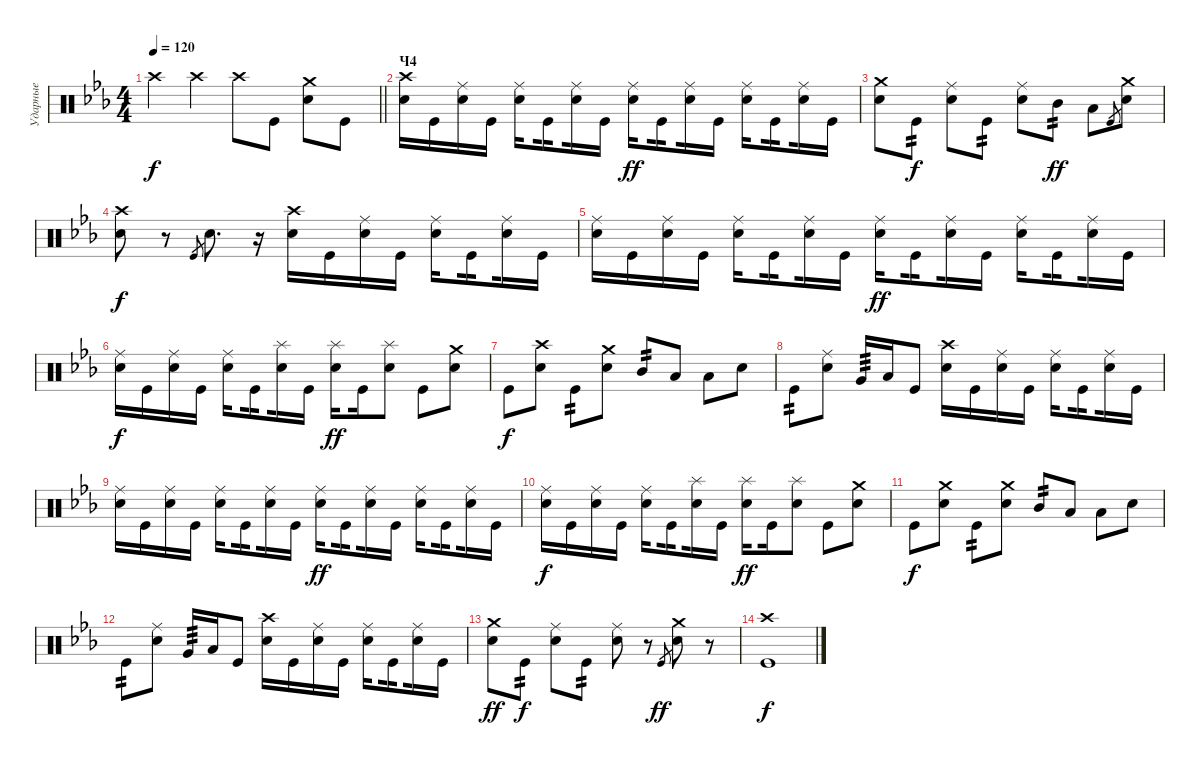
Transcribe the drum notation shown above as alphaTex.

\track ("Ударные" "Ударные") {instrument percussion}
\staff {score}
\articulation defaults
\ts (4 4)
\tempo 120
\clef neutral
\barLineRight lightlight
\ks cminor "Crash high (hit)".4{dy f} "Crash high (hit)".4 "Crash high (hit)".8 "Kick (hit)".8
("Crash medium (hit)" "Snare (hit) 2").8 "Kick (hit)".8 |
\section ("" "Ч4")
("Crash high (hit)" "Snare (hit) 2").16 "Kick (hit)".16 ("Ride (middle)" "Snare (hit) 2").16 "Kick (hit)".16 ("Ride (middle)" "Snare (hit) 2").16{beam splitsecondary} "Kick (hit)".16{beam splitsecondary} ("Ride (middle)" "Snare (hit) 2").16 "Kick (hit)".16 ("Ride (middle)" "Snare (hit) 2").16{dy ff beam splitsecondary} "Kick (hit)".16{beam splitsecondary} ("Ride (middle)" "Snare (hit) 2").16 "Kick (hit)".16 ("Ride (middle)" "Snare (hit) 2").16{beam splitsecondary} "Kick (hit)".16{beam splitsecondary} ("Ride (middle)" "Snare (hit) 2").16 "Kick (hit)".16 |
("Crash medium (hit)" "Snare (hit) 2").8 "Kick (hit)".8{tp 2 dy f} ("Ride (middle)" "Snare (hit) 2").8 "Kick (hit)".8{tp 2} ("Ride (middle)" "Snare (hit) 2").8 "Mid Tom (hit)".8{tp 2 dy ff} "Low Tom (hit)".8 "Kick (hit)".8{gr} ("Crash medium (hit)" "Snare (hit) 2").8 |
("Crash high (hit)" "Snare (hit) 2").8{dy f} r.8 "Kick (hit)".8{gr} "Snare (hit) 2".8{d} r.16 ("Crash high (hit)" "Snare (hit) 2").16 "Kick (hit)".16 ("Ride (middle)" "Snare (hit) 2").16 "Kick (hit)".16 ("Ride (middle)" "Snare (hit) 2").16{beam splitsecondary} "Kick (hit)".16{beam splitsecondary} ("Ride (middle)" "Snare (hit) 2").16 "Kick (hit)".16 |
("Ride (middle)" "Snare (hit) 2").16 "Kick (hit)".16 ("Ride (middle)" "Snare (hit) 2").16 "Kick (hit)".16 ("Ride (middle)" "Snare (hit) 2").16{beam splitsecondary} "Kick (hit)".16{beam splitsecondary} ("Ride (middle)" "Snare (hit) 2").16 "Kick (hit)".16 ("Ride (middle)" "Snare (hit) 2").16{dy ff beam splitsecondary} "Kick (hit)".16{beam splitsecondary} ("Ride (middle)" "Snare (hit) 2").16 "Kick (hit)".16 ("Ride (middle)" "Snare (hit) 2").16{beam splitsecondary} "Kick (hit)".16{beam splitsecondary} ("Ride (middle)" "Snare (hit) 2").16 "Kick (hit)".16 |
("Ride (middle)" "Snare (hit) 2").16{dy f} "Kick (hit)".16 ("Ride (middle)" "Snare (hit) 2").16 "Kick (hit)".16 ("Ride (middle)" "Snare (hit) 2").16{beam splitsecondary} "Kick (hit)".16{beam splitsecondary} ("Splash (hit)" "Snare (hit) 2").16 "Kick (hit)".16 ("Splash (hit)" "Snare (hit) 2").16{dy ff beam splitsecondary} "Kick (hit)".16 ("Splash (hit)" "Snare (hit) 2").8 "Kick (hit)".8 ("Crash medium (hit)" "Snare (hit) 2").8 |
"Kick (hit)".8{dy f} ("Crash high (hit)" "Snare (hit) 2").8 "Kick (hit)".8{tp 2} ("Crash medium (hit)" "Snare (hit) 2").8 "Mid Tom (hit)".8{tp 2} "Low Tom (hit)".8 "Low Floor Tom (hit)".8 "Snare (hit) 2".8 |
"Kick (hit)".8{tp 2} ("Ride (middle)" "Snare (hit) 2").8 "Very Low Tom (hit)".16{tp 3} "Low Floor Tom (hit)".16 "Kick (hit)".8 ("Crash high (hit)" "Snare (hit) 2").16 "Kick (hit)".16 ("Ride (middle)" "Snare (hit) 2").16 "Kick (hit)".16 ("Ride (middle)" "Snare (hit) 2").16{beam splitsecondary} "Kick (hit)".16{beam splitsecondary} ("Ride (middle)" "Snare (hit) 2").16 "Kick (hit)".16 |
("Ride (middle)" "Snare (hit) 2").16 "Kick (hit)".16 ("Ride (middle)" "Snare (hit) 2").16 "Kick (hit)".16 ("Ride (middle)" "Snare (hit) 2").16{beam splitsecondary} "Kick (hit)".16{beam splitsecondary} ("Ride (middle)" "Snare (hit) 2").16 "Kick (hit)".16 ("Ride (middle)" "Snare (hit) 2").16{dy ff beam splitsecondary} "Kick (hit)".16{beam splitsecondary} ("Ride (middle)" "Snare (hit) 2").16 "Kick (hit)".16 ("Ride (middle)" "Snare (hit) 2").16{beam splitsecondary} "Kick (hit)".16{beam splitsecondary} ("Ride (middle)" "Snare (hit) 2").16 "Kick (hit)".16 |
("Ride (middle)" "Snare (hit) 2").16{dy f} "Kick (hit)".16 ("Ride (middle)" "Snare (hit) 2").16 "Kick (hit)".16 ("Ride (middle)" "Snare (hit) 2").16{beam splitsecondary} "Kick (hit)".16{beam splitsecondary} ("Splash (hit)" "Snare (hit) 2").16 "Kick (hit)".16 ("Splash (hit)" "Snare (hit) 2").16{dy ff beam splitsecondary} "Kick (hit)".16 ("Splash (hit)" "Snare (hit) 2").8 "Kick (hit)".8 ("Crash medium (hit)" "Snare (hit) 2").8 |
"Kick (hit)".8{dy f} ("Crash medium (hit)" "Snare (hit) 2").8 "Kick (hit)".8{tp 2} ("Crash medium (hit)" "Snare (hit) 2").8 "Mid Tom (hit)".8{tp 2} "Low Tom (hit)".8 "Low Floor Tom (hit)".8 "Snare (hit) 2".8 |
"Kick (hit)".8{tp 2} ("Ride (middle)" "Snare (hit) 2").8 "Very Low Tom (hit)".16{tp 3} "Low Floor Tom (hit)".16 "Kick (hit)".8 ("Crash high (hit)" "Snare (hit) 2").16 "Kick (hit)".16 ("Ride (middle)" "Snare (hit) 2").16 "Kick (hit)".16 ("Ride (middle)" "Snare (hit) 2").16{beam splitsecondary} "Kick (hit)".16{beam splitsecondary} ("Ride (middle)" "Snare (hit) 2").16 "Kick (hit)".16 |
("Crash medium (hit)" "Snare (hit) 2").8{dy ff} "Kick (hit)".8{tp 2 dy f} ("Ride (middle)" "Snare (hit) 2").8 "Kick (hit)".8{tp 2} ("Ride (middle)" "Snare (hit) 2").8 r.8 "Kick (hit)".8{gr dy ff} ("Crash medium (hit)" "Snare (hit) 2").8 r.8 |
("Crash high (hit)" "Kick (hit)").1{dy f}
